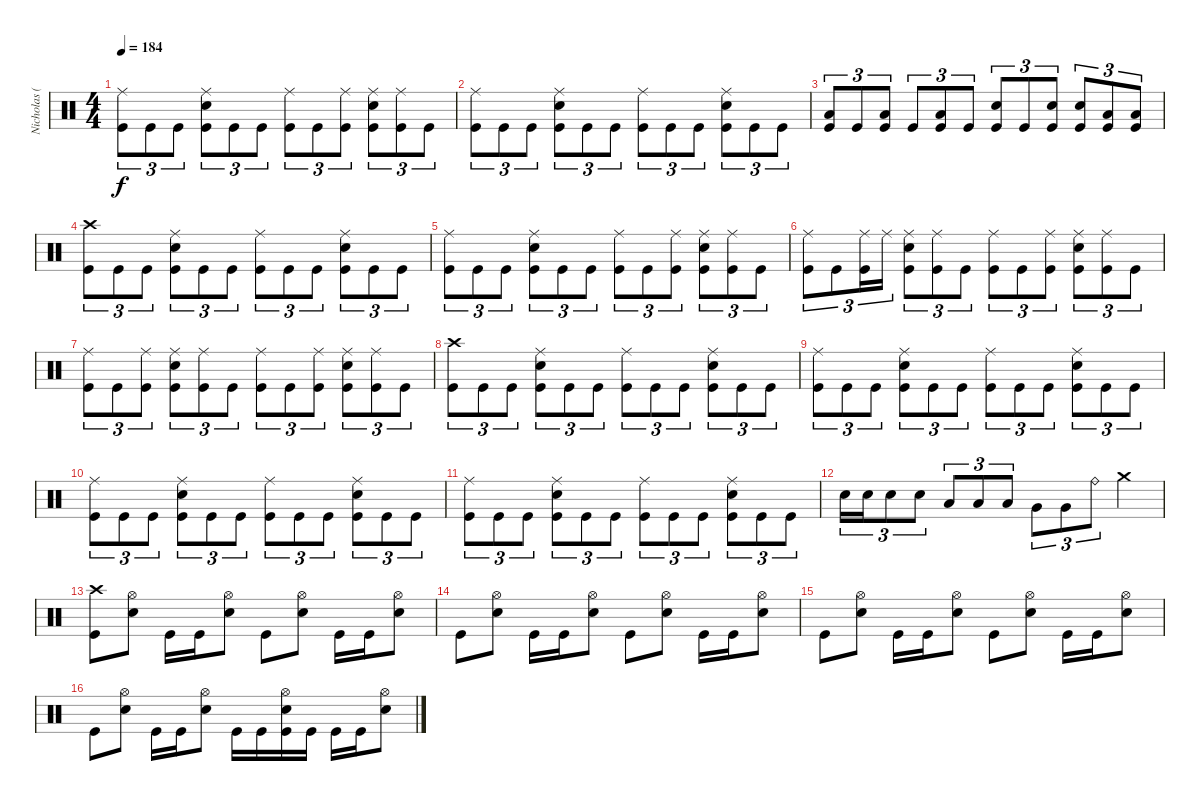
\track ("Nicholas (Drums)" "Nicholas (") {instrument percussion}
\staff {score}
\articulation defaults
\ts (4 4)
\tempo 184
\clef neutral
\ks c
("Ride (middle)" "Kick (hit)").8{tu (3 2) dy f} "Kick (hit)".8{tu (3 2)} "Kick (hit)".8{tu (3 2)} ("Ride (middle)" "Electric Snare (hit)" "Kick (hit)").8{tu (3 2)} "Kick (hit)".8{tu (3 2)} "Kick (hit)".8{tu (3 2)} ("Ride (middle)" "Kick (hit)").8{tu (3 2)} "Kick (hit)".8{tu (3 2)} ("Ride (middle)" "Kick (hit)").8{tu (3 2)} ("Ride (middle)" "Electric Snare (hit)" "Kick (hit)").8{tu (3 2)} ("Ride (middle)" "Kick (hit)").8{tu (3 2)} "Kick (hit)".8{tu (3 2)} |
("Ride (middle)" "Kick (hit)").8{tu (3 2)} "Kick (hit)".8{tu (3 2)} "Kick (hit)".8{tu (3 2)} ("Ride (middle)" "Electric Snare (hit)" "Kick (hit)").8{tu (3 2)} "Kick (hit)".8{tu (3 2)} "Kick (hit)".8{tu (3 2)} ("Ride (middle)" "Kick (hit)").8{tu (3 2)} "Kick (hit)".8{tu (3 2)} "Kick (hit)".8{tu (3 2)} ("Ride (middle)" "Electric Snare (hit)" "Kick (hit)").8{tu (3 2)} "Kick (hit)".8{tu (3 2)} "Kick (hit)".8{tu (3 2)} |
("Low Floor Tom (hit)" "Kick (hit)").8{tu (3 2)} "Kick (hit)".8{tu (3 2)} ("Low Floor Tom (hit)" "Kick (hit)").8{tu (3 2)} "Kick (hit)".8{tu (3 2)} ("Low Floor Tom (hit)" "Kick (hit)").8{tu (3 2)} "Kick (hit)".8{tu (3 2)} ("Electric Snare (hit)" "Kick (hit)").8{tu (3 2)} "Kick (hit)".8{tu (3 2)} ("Electric Snare (hit)" "Kick (hit)").8{tu (3 2)} ("Electric Snare (hit)" "Kick (hit)").8{tu (3 2)} ("Low Floor Tom (hit)" "Kick (hit)").8{tu (3 2)} ("Low Floor Tom (hit)" "Kick (hit)").8{tu (3 2)} |
("Crash high (hit)" "Kick (hit)").8{tu (3 2)} "Kick (hit)".8{tu (3 2)} "Kick (hit)".8{tu (3 2)} ("Ride (middle)" "Electric Snare (hit)" "Kick (hit)").8{tu (3 2)} "Kick (hit)".8{tu (3 2)} "Kick (hit)".8{tu (3 2)} ("Ride (middle)" "Kick (hit)").8{tu (3 2)} "Kick (hit)".8{tu (3 2)} "Kick (hit)".8{tu (3 2)} ("Ride (middle)" "Electric Snare (hit)" "Kick (hit)").8{tu (3 2)} "Kick (hit)".8{tu (3 2)} "Kick (hit)".8{tu (3 2)} |
("Ride (middle)" "Kick (hit)").8{tu (3 2)} "Kick (hit)".8{tu (3 2)} "Kick (hit)".8{tu (3 2)} ("Ride (middle)" "Electric Snare (hit)" "Kick (hit)").8{tu (3 2)} "Kick (hit)".8{tu (3 2)} "Kick (hit)".8{tu (3 2)} ("Ride (middle)" "Kick (hit)").8{tu (3 2)} "Kick (hit)".8{tu (3 2)} ("Ride (middle)" "Kick (hit)").8{tu (3 2)} ("Ride (middle)" "Electric Snare (hit)" "Kick (hit)").8{tu (3 2)} ("Ride (middle)" "Kick (hit)").8{tu (3 2)} "Kick (hit)".8{tu (3 2)} |
("Ride (middle)" "Kick (hit)").8{tu (3 2)} "Kick (hit)".8{tu (3 2)} ("Ride (middle)" "Kick (hit)").16{tu (3 2)} "Ride (middle)".16{tu (3 2)} ("Ride (middle)" "Electric Snare (hit)" "Kick (hit)").8{tu (3 2)} ("Ride (middle)" "Kick (hit)").8{tu (3 2)} "Kick (hit)".8{tu (3 2)} ("Ride (middle)" "Kick (hit)").8{tu (3 2)} "Kick (hit)".8{tu (3 2)} ("Ride (middle)" "Kick (hit)").8{tu (3 2)} ("Ride (middle)" "Electric Snare (hit)" "Kick (hit)").8{tu (3 2)} ("Ride (middle)" "Kick (hit)").8{tu (3 2)} "Kick (hit)".8{tu (3 2)} |
("Ride (middle)" "Kick (hit)").8{tu (3 2)} "Kick (hit)".8{tu (3 2)} ("Ride (middle)" "Kick (hit)").8{tu (3 2)} ("Ride (middle)" "Electric Snare (hit)" "Kick (hit)").8{tu (3 2)} ("Ride (middle)" "Kick (hit)").8{tu (3 2)} "Kick (hit)".8{tu (3 2)} ("Ride (middle)" "Kick (hit)").8{tu (3 2)} "Kick (hit)".8{tu (3 2)} ("Ride (middle)" "Kick (hit)").8{tu (3 2)} ("Ride (middle)" "Electric Snare (hit)" "Kick (hit)").8{tu (3 2)} ("Ride (middle)" "Kick (hit)").8{tu (3 2)} "Kick (hit)".8{tu (3 2)} |
("Crash high (hit)" "Kick (hit)").8{tu (3 2)} "Kick (hit)".8{tu (3 2)} "Kick (hit)".8{tu (3 2)} ("Ride (middle)" "Electric Snare (hit)" "Kick (hit)").8{tu (3 2)} "Kick (hit)".8{tu (3 2)} "Kick (hit)".8{tu (3 2)} ("Ride (middle)" "Kick (hit)").8{tu (3 2)} "Kick (hit)".8{tu (3 2)} "Kick (hit)".8{tu (3 2)} ("Ride (middle)" "Electric Snare (hit)" "Kick (hit)").8{tu (3 2)} "Kick (hit)".8{tu (3 2)} "Kick (hit)".8{tu (3 2)} |
("Ride (middle)" "Kick (hit)").8{tu (3 2)} "Kick (hit)".8{tu (3 2)} "Kick (hit)".8{tu (3 2)} ("Ride (middle)" "Electric Snare (hit)" "Kick (hit)").8{tu (3 2)} "Kick (hit)".8{tu (3 2)} "Kick (hit)".8{tu (3 2)} ("Ride (middle)" "Kick (hit)").8{tu (3 2)} "Kick (hit)".8{tu (3 2)} "Kick (hit)".8{tu (3 2)} ("Ride (middle)" "Electric Snare (hit)" "Kick (hit)").8{tu (3 2)} "Kick (hit)".8{tu (3 2)} "Kick (hit)".8{tu (3 2)} |
("Ride (middle)" "Kick (hit)").8{tu (3 2)} "Kick (hit)".8{tu (3 2)} "Kick (hit)".8{tu (3 2)} ("Ride (middle)" "Electric Snare (hit)" "Kick (hit)").8{tu (3 2)} "Kick (hit)".8{tu (3 2)} "Kick (hit)".8{tu (3 2)} ("Ride (middle)" "Kick (hit)").8{tu (3 2)} "Kick (hit)".8{tu (3 2)} "Kick (hit)".8{tu (3 2)} ("Ride (middle)" "Electric Snare (hit)" "Kick (hit)").8{tu (3 2)} "Kick (hit)".8{tu (3 2)} "Kick (hit)".8{tu (3 2)} |
("Ride (middle)" "Kick (hit)").8{tu (3 2)} "Kick (hit)".8{tu (3 2)} "Kick (hit)".8{tu (3 2)} ("Ride (middle)" "Electric Snare (hit)" "Kick (hit)").8{tu (3 2)} "Kick (hit)".8{tu (3 2)} "Kick (hit)".8{tu (3 2)} ("Ride (middle)" "Kick (hit)").8{tu (3 2)} "Kick (hit)".8{tu (3 2)} "Kick (hit)".8{tu (3 2)} ("Ride (middle)" "Electric Snare (hit)" "Kick (hit)").8{tu (3 2)} "Kick (hit)".8{tu (3 2)} "Kick (hit)".8{tu (3 2)} |
"Electric Snare (hit)".16{tu (3 2)} "Electric Snare (hit)".16{tu (3 2)} "Electric Snare (hit)".8{tu (3 2)} "Electric Snare (hit)".8{tu (3 2)} "Low Tom (hit)".8{tu (3 2)} "Low Tom (hit)".8{tu (3 2)} "Low Tom (hit)".8{tu (3 2)} "Very Low Tom (hit)".8{tu (3 2)} "Very Low Tom (hit)".8{tu (3 2)} "Ride (bell)".8{tu (3 2)} "Crash medium (hit)".4 |
("Crash high (hit)" "Kick (hit)").8 ("Hi-Hat (open)" "Electric Snare (hit)").8 "Kick (hit)".16 "Kick (hit)".16 ("Hi-Hat (open)" "Electric Snare (hit)").8 "Kick (hit)".8 ("Hi-Hat (open)" "Electric Snare (hit)").8 "Kick (hit)".16 "Kick (hit)".16 ("Hi-Hat (open)" "Electric Snare (hit)").8 |
"Kick (hit)".8 ("Hi-Hat (open)" "Electric Snare (hit)").8 "Kick (hit)".16 "Kick (hit)".16 ("Hi-Hat (open)" "Electric Snare (hit)").8 "Kick (hit)".8 ("Hi-Hat (open)" "Electric Snare (hit)").8 "Kick (hit)".16 "Kick (hit)".16 ("Hi-Hat (open)" "Electric Snare (hit)").8 |
"Kick (hit)".8 ("Hi-Hat (open)" "Electric Snare (hit)").8 "Kick (hit)".16 "Kick (hit)".16 ("Hi-Hat (open)" "Electric Snare (hit)").8 "Kick (hit)".8 ("Hi-Hat (open)" "Electric Snare (hit)").8 "Kick (hit)".16 "Kick (hit)".16 ("Hi-Hat (open)" "Electric Snare (hit)").8 |
"Kick (hit)".8 ("Hi-Hat (open)" "Electric Snare (hit)").8 "Kick (hit)".16 "Kick (hit)".16 ("Hi-Hat (open)" "Electric Snare (hit)").8 "Kick (hit)".16 "Kick (hit)".16 ("Hi-Hat (open)" "Electric Snare (hit)" "Kick (hit)").16 "Kick (hit)".16 "Kick (hit)".16 "Kick (hit)".16 ("Hi-Hat (open)" "Electric Snare (hit)").8
